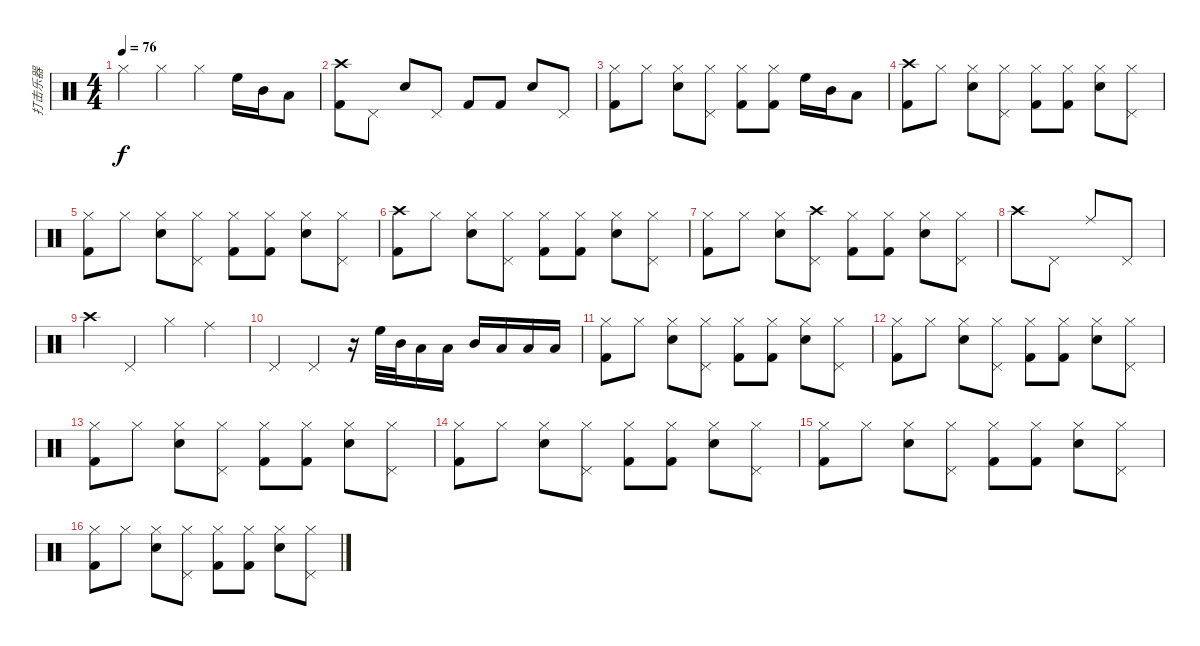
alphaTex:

\track ("打击乐器" "打击乐器") {instrument percussion}
\staff {score}
\articulation defaults
\ts (4 4)
\tempo 76
\clef neutral
\ks c "Hi-Hat (closed)".4{dy f} "Hi-Hat (closed)".4 "Hi-Hat (closed)".4 "High Floor Tom (hit)".16 "Mid Tom (hit)".16 "Low Tom (hit)".8
|
("Crash high (hit)" "Kick (hit) 2").8 "Pedal Hi-Hat (hit)".8 "Snare (hit) 2".8 "Pedal Hi-Hat (hit)".8 "Kick (hit) 2".8 "Kick (hit) 2".8 "Snare (hit) 2".8 "Pedal Hi-Hat (hit)".8 |
("Hi-Hat (closed)" "Kick (hit) 2").8 "Hi-Hat (closed)".8 ("Hi-Hat (closed)" "Snare (hit) 2").8 ("Hi-Hat (closed)" "Pedal Hi-Hat (hit)").8 ("Hi-Hat (closed)" "Kick (hit) 2").8 ("Hi-Hat (closed)" "Kick (hit) 2").8 "High Floor Tom (hit)".16 "Mid Tom (hit)".16 "Low Tom (hit)".8 |
("Crash high (hit)" "Kick (hit) 2").8 "Hi-Hat (closed)".8 ("Hi-Hat (closed)" "Snare (hit) 2").8 ("Hi-Hat (closed)" "Pedal Hi-Hat (hit)").8 ("Hi-Hat (closed)" "Kick (hit) 2").8 ("Hi-Hat (closed)" "Kick (hit) 2").8 ("Hi-Hat (closed)" "Snare (hit) 2").8 ("Hi-Hat (closed)" "Pedal Hi-Hat (hit)").8 |
("Hi-Hat (closed)" "Kick (hit) 2").8 "Hi-Hat (closed)".8 ("Hi-Hat (closed)" "Snare (hit) 2").8 ("Hi-Hat (closed)" "Pedal Hi-Hat (hit)").8 ("Hi-Hat (closed)" "Kick (hit) 2").8 ("Hi-Hat (closed)" "Kick (hit) 2").8 ("Hi-Hat (closed)" "Snare (hit) 2").8 ("Hi-Hat (closed)" "Pedal Hi-Hat (hit)").8 |
("Crash high (hit)" "Kick (hit) 2").8 "Hi-Hat (closed)".8 ("Hi-Hat (closed)" "Snare (hit) 2").8 ("Hi-Hat (closed)" "Pedal Hi-Hat (hit)").8 ("Hi-Hat (closed)" "Kick (hit) 2").8 ("Hi-Hat (closed)" "Kick (hit) 2").8 ("Hi-Hat (closed)" "Snare (hit) 2").8 ("Hi-Hat (closed)" "Pedal Hi-Hat (hit)").8 |
("Hi-Hat (closed)" "Kick (hit) 2").8 "Hi-Hat (closed)".8 ("Hi-Hat (closed)" "Snare (hit) 2").8 ("Crash high (hit)" "Pedal Hi-Hat (hit)").8 ("Hi-Hat (closed)" "Kick (hit) 2").8 ("Hi-Hat (closed)" "Kick (hit) 2").8 ("Hi-Hat (closed)" "Snare (hit) 2").8 ("Hi-Hat (closed)" "Pedal Hi-Hat (hit)").8 |
"Crash high (hit)".8 "Pedal Hi-Hat (hit)".8 "Ride (middle)".8 "Pedal Hi-Hat (hit)".8 |
"Crash high (hit)".4 "Pedal Hi-Hat (hit)".4 "Hi-Hat (closed)".4 "Ride (middle)".4 |
"Pedal Hi-Hat (hit)".4 "Pedal Hi-Hat (hit)".4 r.16 "High Floor Tom (hit)".32 "Mid Tom (hit)".32 "Low Tom (hit)".16 "Low Floor Tom (hit)".16 "Mid Tom (hit)".16 "Low Tom (hit)".16 "Low Floor Tom (hit)".16 "Low Floor Tom (hit)".16 |
("Hi-Hat (closed)" "Kick (hit) 2").8 "Hi-Hat (closed)".8 ("Hi-Hat (closed)" "Snare (hit) 2").8 ("Hi-Hat (closed)" "Pedal Hi-Hat (hit)").8 ("Hi-Hat (closed)" "Kick (hit) 2").8 ("Hi-Hat (closed)" "Kick (hit) 2").8 ("Hi-Hat (closed)" "Snare (hit) 2").8 ("Hi-Hat (closed)" "Pedal Hi-Hat (hit)").8 |
("Hi-Hat (closed)" "Kick (hit) 2").8 "Hi-Hat (closed)".8 ("Hi-Hat (closed)" "Snare (hit) 2").8 ("Hi-Hat (closed)" "Pedal Hi-Hat (hit)").8 ("Hi-Hat (closed)" "Kick (hit) 2").8 ("Hi-Hat (closed)" "Kick (hit) 2").8 ("Hi-Hat (closed)" "Snare (hit) 2").8 ("Hi-Hat (closed)" "Pedal Hi-Hat (hit)").8 |
("Hi-Hat (closed)" "Kick (hit) 2").8 "Hi-Hat (closed)".8 ("Hi-Hat (closed)" "Snare (hit) 2").8 ("Hi-Hat (closed)" "Pedal Hi-Hat (hit)").8 ("Hi-Hat (closed)" "Kick (hit) 2").8 ("Hi-Hat (closed)" "Kick (hit) 2").8 ("Hi-Hat (closed)" "Snare (hit) 2").8 ("Hi-Hat (closed)" "Pedal Hi-Hat (hit)").8 |
("Hi-Hat (closed)" "Kick (hit) 2").8 "Hi-Hat (closed)".8 ("Hi-Hat (closed)" "Snare (hit) 2").8 ("Hi-Hat (closed)" "Pedal Hi-Hat (hit)").8 ("Hi-Hat (closed)" "Kick (hit) 2").8 ("Hi-Hat (closed)" "Kick (hit) 2").8 ("Hi-Hat (closed)" "Snare (hit) 2").8 ("Hi-Hat (closed)" "Pedal Hi-Hat (hit)").8 |
("Hi-Hat (closed)" "Kick (hit) 2").8 "Hi-Hat (closed)".8 ("Hi-Hat (closed)" "Snare (hit) 2").8 ("Hi-Hat (closed)" "Pedal Hi-Hat (hit)").8 ("Hi-Hat (closed)" "Kick (hit) 2").8 ("Hi-Hat (closed)" "Kick (hit) 2").8 ("Hi-Hat (closed)" "Snare (hit) 2").8 ("Hi-Hat (closed)" "Pedal Hi-Hat (hit)").8 |
("Hi-Hat (closed)" "Kick (hit) 2").8 "Hi-Hat (closed)".8 ("Hi-Hat (closed)" "Snare (hit) 2").8 ("Hi-Hat (closed)" "Pedal Hi-Hat (hit)").8 ("Hi-Hat (closed)" "Kick (hit) 2").8 ("Hi-Hat (closed)" "Kick (hit) 2").8 ("Hi-Hat (closed)" "Snare (hit) 2").8 ("Hi-Hat (closed)" "Pedal Hi-Hat (hit)").8
